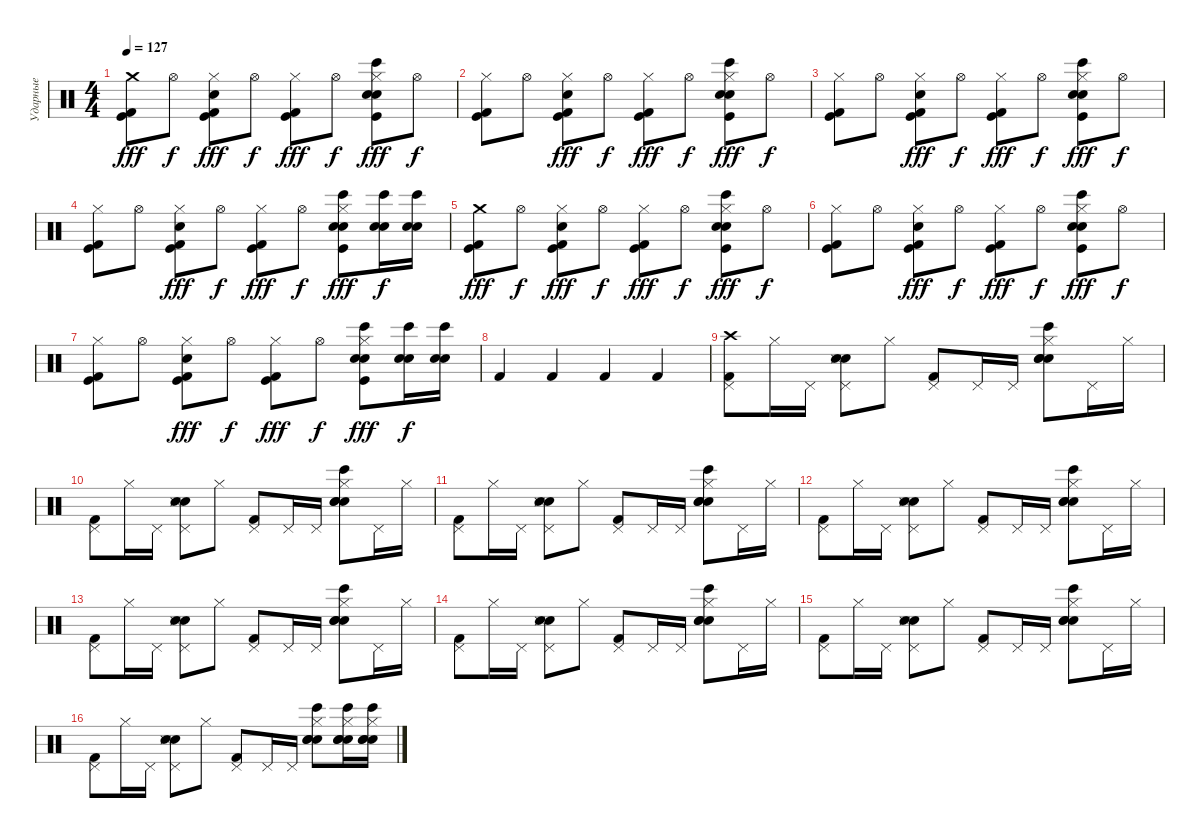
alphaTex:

\track ("Ударные" "Ударные") {instrument percussion}
\staff {score}
\articulation defaults
\ts (4 4)
\tempo 127
\clef neutral
\ks c
("Kick (hit) 2" "Kick (hit)" "Crash medium (hit)").8{dy fff} "Hi-Hat (open)".8{dy f} ("Kick (hit) 2" "Hi-Hat (closed)" "Kick (hit)" "Hand Clap (hit)").8{dy fff} "Hi-Hat (open)".8{dy f} ("Kick (hit) 2" "Hi-Hat (closed)" "Kick (hit)").8{dy fff} "Hi-Hat (open)".8{dy f} ("Hi-Hat (closed)" "Hand Clap (hit)" "Kick (hit)" "Snare (hit) 2" "Bongo High (hit)").8{dy fff} "Hi-Hat (open)".8{dy f} |
("Kick (hit) 2" "Hi-Hat (closed)" "Kick (hit)").8 "Hi-Hat (open)".8 ("Kick (hit) 2" "Hi-Hat (closed)" "Kick (hit)" "Hand Clap (hit)").8{dy fff} "Hi-Hat (open)".8{dy f} ("Kick (hit) 2" "Hi-Hat (closed)" "Kick (hit)").8{dy fff} "Hi-Hat (open)".8{dy f} ("Hi-Hat (closed)" "Hand Clap (hit)" "Kick (hit)" "Snare (hit) 2" "Bongo High (hit)").8{dy fff} "Hi-Hat (open)".8{dy f} |
("Kick (hit) 2" "Hi-Hat (closed)" "Kick (hit)").8 "Hi-Hat (open)".8 ("Kick (hit) 2" "Hi-Hat (closed)" "Kick (hit)" "Hand Clap (hit)").8{dy fff} "Hi-Hat (open)".8{dy f} ("Kick (hit) 2" "Hi-Hat (closed)" "Kick (hit)").8{dy fff} "Hi-Hat (open)".8{dy f} ("Hi-Hat (closed)" "Hand Clap (hit)" "Kick (hit)" "Snare (hit) 2" "Bongo High (hit)").8{dy fff} "Hi-Hat (open)".8{dy f} |
("Kick (hit) 2" "Hi-Hat (closed)" "Kick (hit)").8 "Hi-Hat (open)".8 ("Kick (hit) 2" "Hi-Hat (closed)" "Kick (hit)" "Hand Clap (hit)").8{dy fff} "Hi-Hat (open)".8{dy f} ("Kick (hit) 2" "Hi-Hat (closed)" "Kick (hit)").8{dy fff} "Hi-Hat (open)".8{dy f} ("Hi-Hat (closed)" "Hand Clap (hit)" "Kick (hit)" "Snare (hit) 2" "Bongo High (hit)").8{dy fff} ("Hand Clap (hit)" "Snare (hit) 2" "Bongo High (hit)").16{dy f} ("Hand Clap (hit)" "Snare (hit) 2" "Bongo High (hit)").16 |
("Kick (hit) 2" "Kick (hit)" "Crash medium (hit)").8{dy fff} "Hi-Hat (open)".8{dy f} ("Kick (hit) 2" "Hi-Hat (closed)" "Kick (hit)" "Hand Clap (hit)").8{dy fff} "Hi-Hat (open)".8{dy f} ("Kick (hit) 2" "Hi-Hat (closed)" "Kick (hit)").8{dy fff} "Hi-Hat (open)".8{dy f} ("Hi-Hat (closed)" "Hand Clap (hit)" "Kick (hit)" "Snare (hit) 2" "Bongo High (hit)").8{dy fff} "Hi-Hat (open)".8{dy f} |
("Kick (hit) 2" "Hi-Hat (closed)" "Kick (hit)").8 "Hi-Hat (open)".8 ("Kick (hit) 2" "Hi-Hat (closed)" "Kick (hit)" "Hand Clap (hit)").8{dy fff} "Hi-Hat (open)".8{dy f} ("Kick (hit) 2" "Hi-Hat (closed)" "Kick (hit)").8{dy fff} "Hi-Hat (open)".8{dy f} ("Hi-Hat (closed)" "Hand Clap (hit)" "Kick (hit)" "Snare (hit) 2" "Bongo High (hit)").8{dy fff} "Hi-Hat (open)".8{dy f} |
("Kick (hit) 2" "Hi-Hat (closed)" "Kick (hit)").8 "Hi-Hat (open)".8 ("Kick (hit) 2" "Hi-Hat (closed)" "Kick (hit)" "Hand Clap (hit)").8{dy fff} "Hi-Hat (open)".8{dy f} ("Kick (hit) 2" "Hi-Hat (closed)" "Kick (hit)").8{dy fff} "Hi-Hat (open)".8{dy f} ("Hi-Hat (closed)" "Hand Clap (hit)" "Kick (hit)" "Snare (hit) 2" "Bongo High (hit)").8{dy fff} ("Hand Clap (hit)" "Snare (hit) 2" "Bongo High (hit)").16{dy f} ("Hand Clap (hit)" "Snare (hit) 2" "Bongo High (hit)").16 |
"Kick (hit) 2".4 "Kick (hit) 2".4 "Kick (hit) 2".4 "Kick (hit) 2".4 |
("Kick (hit) 2" "Pedal Hi-Hat (hit)" "Crash high (hit)").8 "Hi-Hat (closed)".16 "Pedal Hi-Hat (hit)".16 ("Pedal Hi-Hat (hit)" "Electric Snare (hit)" "Hand Clap (hit)" "Snare (side stick) 3").8 "Hi-Hat (closed)".8 ("Kick (hit) 2" "Pedal Hi-Hat (hit)").8 "Pedal Hi-Hat (hit)".16 "Pedal Hi-Hat (hit)".16 ("Hi-Hat (closed)" "Hand Clap (hit)" "Hand Clap (hit)" "Snare (hit) 2" "Bongo High (hit)").8 "Pedal Hi-Hat (hit)".16 "Hi-Hat (closed)".16 |
("Kick (hit) 2" "Pedal Hi-Hat (hit)").8 "Hi-Hat (closed)".16 "Pedal Hi-Hat (hit)".16 ("Pedal Hi-Hat (hit)" "Electric Snare (hit)" "Hand Clap (hit)" "Snare (side stick) 3").8 "Hi-Hat (closed)".8 ("Kick (hit) 2" "Pedal Hi-Hat (hit)").8 "Pedal Hi-Hat (hit)".16 "Pedal Hi-Hat (hit)".16 ("Hi-Hat (closed)" "Hand Clap (hit)" "Hand Clap (hit)" "Snare (hit) 2" "Bongo High (hit)").8 "Pedal Hi-Hat (hit)".16 "Hi-Hat (closed)".16 |
("Kick (hit) 2" "Pedal Hi-Hat (hit)").8 "Hi-Hat (closed)".16 "Pedal Hi-Hat (hit)".16 ("Pedal Hi-Hat (hit)" "Electric Snare (hit)" "Hand Clap (hit)" "Snare (side stick) 3").8 "Hi-Hat (closed)".8 ("Kick (hit) 2" "Pedal Hi-Hat (hit)").8 "Pedal Hi-Hat (hit)".16 "Pedal Hi-Hat (hit)".16 ("Hi-Hat (closed)" "Hand Clap (hit)" "Hand Clap (hit)" "Snare (hit) 2" "Bongo High (hit)").8 "Pedal Hi-Hat (hit)".16 "Hi-Hat (closed)".16 |
("Kick (hit) 2" "Pedal Hi-Hat (hit)").8 "Hi-Hat (closed)".16 "Pedal Hi-Hat (hit)".16 ("Pedal Hi-Hat (hit)" "Electric Snare (hit)" "Hand Clap (hit)" "Snare (side stick) 3").8 "Hi-Hat (closed)".8 ("Kick (hit) 2" "Pedal Hi-Hat (hit)").8 "Pedal Hi-Hat (hit)".16 "Pedal Hi-Hat (hit)".16 ("Hi-Hat (closed)" "Hand Clap (hit)" "Hand Clap (hit)" "Snare (hit) 2" "Bongo High (hit)").8 "Pedal Hi-Hat (hit)".16 "Hi-Hat (closed)".16 |
("Kick (hit) 2" "Pedal Hi-Hat (hit)").8 "Hi-Hat (closed)".16 "Pedal Hi-Hat (hit)".16 ("Pedal Hi-Hat (hit)" "Electric Snare (hit)" "Hand Clap (hit)" "Snare (side stick) 3").8 "Hi-Hat (closed)".8 ("Kick (hit) 2" "Pedal Hi-Hat (hit)").8 "Pedal Hi-Hat (hit)".16 "Pedal Hi-Hat (hit)".16 ("Hi-Hat (closed)" "Hand Clap (hit)" "Hand Clap (hit)" "Snare (hit) 2" "Bongo High (hit)").8 "Pedal Hi-Hat (hit)".16 "Hi-Hat (closed)".16 |
("Kick (hit) 2" "Pedal Hi-Hat (hit)").8 "Hi-Hat (closed)".16 "Pedal Hi-Hat (hit)".16 ("Pedal Hi-Hat (hit)" "Electric Snare (hit)" "Hand Clap (hit)" "Snare (side stick) 3").8 "Hi-Hat (closed)".8 ("Kick (hit) 2" "Pedal Hi-Hat (hit)").8 "Pedal Hi-Hat (hit)".16 "Pedal Hi-Hat (hit)".16 ("Hi-Hat (closed)" "Hand Clap (hit)" "Hand Clap (hit)" "Snare (hit) 2" "Bongo High (hit)").8 "Pedal Hi-Hat (hit)".16 "Hi-Hat (closed)".16 |
("Kick (hit) 2" "Pedal Hi-Hat (hit)").8 "Hi-Hat (closed)".16 "Pedal Hi-Hat (hit)".16 ("Pedal Hi-Hat (hit)" "Electric Snare (hit)" "Hand Clap (hit)" "Snare (side stick) 3").8 "Hi-Hat (closed)".8 ("Kick (hit) 2" "Pedal Hi-Hat (hit)").8 "Pedal Hi-Hat (hit)".16 "Pedal Hi-Hat (hit)".16 ("Hi-Hat (closed)" "Hand Clap (hit)" "Hand Clap (hit)" "Snare (hit) 2" "Bongo High (hit)").8 "Pedal Hi-Hat (hit)".16 "Hi-Hat (closed)".16 |
("Kick (hit) 2" "Pedal Hi-Hat (hit)").8 "Hi-Hat (closed)".16 "Pedal Hi-Hat (hit)".16 ("Pedal Hi-Hat (hit)" "Electric Snare (hit)" "Hand Clap (hit)" "Snare (side stick) 3").8 "Hi-Hat (closed)".8 ("Kick (hit) 2" "Pedal Hi-Hat (hit)").8 "Pedal Hi-Hat (hit)".16 "Pedal Hi-Hat (hit)".16 ("Hi-Hat (closed)" "Hand Clap (hit)" "Hand Clap (hit)" "Snare (hit) 2" "Bongo High (hit)").8 ("Hi-Hat (closed)" "Hand Clap (hit)" "Hand Clap (hit)" "Snare (hit) 2" "Bongo High (hit)").16 ("Hi-Hat (closed)" "Hand Clap (hit)" "Hand Clap (hit)" "Snare (hit) 2" "Bongo High (hit)").16
